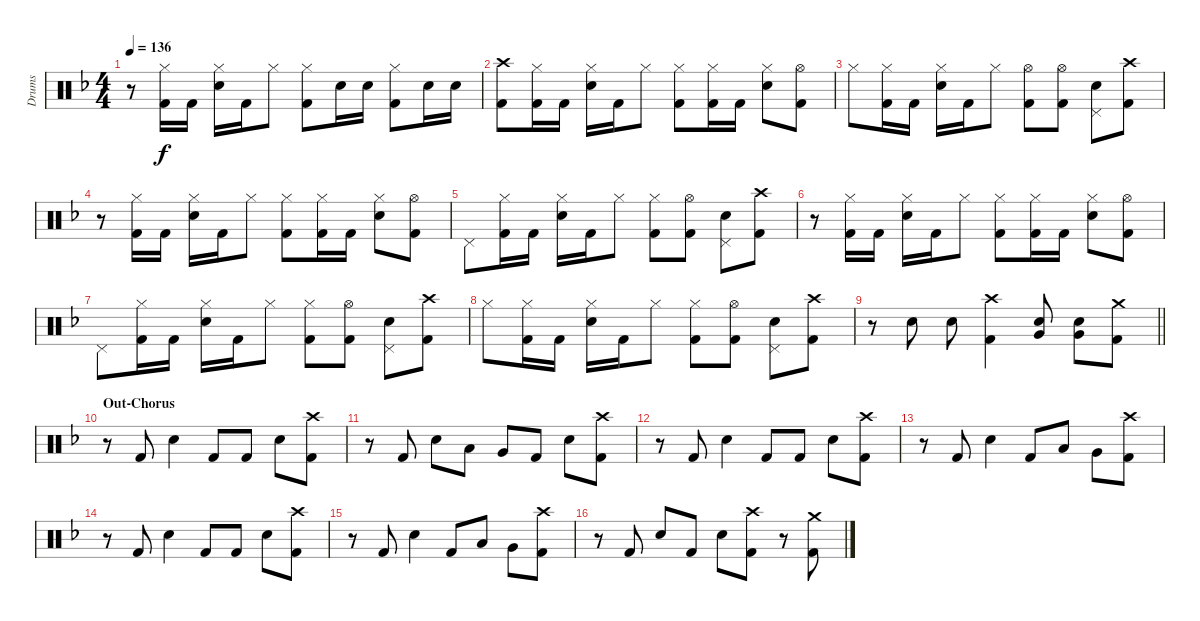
\track ("Drums" "Drums") {instrument percussion}
\staff {score}
\articulation defaults
\ts (4 4)
\tempo 136
\clef neutral
\ks dminor
r.8{dy f} ("Hi-Hat (closed)" "Kick (hit) 2").16 "Kick (hit) 2".16 ("Hi-Hat (closed)" "Snare (hit) 2").16 "Kick (hit) 2".16 "Hi-Hat (closed)".8 ("Hi-Hat (closed)" "Kick (hit) 2").8 "Snare (hit) 2".16 "Snare (hit) 2".16 ("Hi-Hat (closed)" "Kick (hit) 2").8 "Snare (hit) 2".16 "Snare (hit) 2".16 |
("Crash high (hit)" "Kick (hit) 2").8 ("Hi-Hat (closed)" "Kick (hit) 2").16 "Kick (hit) 2".16 ("Hi-Hat (closed)" "Snare (hit) 2").16 "Kick (hit) 2".16 "Hi-Hat (closed)".8 ("Hi-Hat (closed)" "Kick (hit) 2").8 ("Hi-Hat (closed)" "Kick (hit) 2").16 "Kick (hit) 2".16 ("Hi-Hat (closed)" "Snare (hit) 2").8 ("Hi-Hat (open)" "Kick (hit) 2").8 |
"Hi-Hat (closed)".8 ("Hi-Hat (closed)" "Kick (hit) 2").16 "Kick (hit) 2".16 ("Hi-Hat (closed)" "Snare (hit) 2").16 "Kick (hit) 2".16 "Hi-Hat (closed)".8 ("Hi-Hat (open)" "Kick (hit) 2").8 ("Hi-Hat (open)" "Kick (hit) 2").8 ("Pedal Hi-Hat (hit)" "Snare (hit) 2").8 ("Crash high (hit)" "Kick (hit) 2").8 |
r.8 ("Hi-Hat (closed)" "Kick (hit) 2").16 "Kick (hit) 2".16 ("Hi-Hat (closed)" "Snare (hit) 2").16 "Kick (hit) 2".16 "Hi-Hat (closed)".8 ("Hi-Hat (closed)" "Kick (hit) 2").8 ("Hi-Hat (closed)" "Kick (hit) 2").16 "Kick (hit) 2".16 ("Hi-Hat (closed)" "Snare (hit) 2").8 ("Hi-Hat (open)" "Kick (hit) 2").8 |
"Pedal Hi-Hat (hit)".8 ("Hi-Hat (closed)" "Kick (hit) 2").16 "Kick (hit) 2".16 ("Hi-Hat (closed)" "Snare (hit) 2").16 "Kick (hit) 2".16 "Hi-Hat (closed)".8 ("Hi-Hat (closed)" "Kick (hit) 2").8 ("Hi-Hat (open)" "Kick (hit) 2").8 ("Pedal Hi-Hat (hit)" "Snare (hit) 2").8 ("Crash high (hit)" "Kick (hit) 2").8 |
r.8 ("Hi-Hat (closed)" "Kick (hit) 2").16 "Kick (hit) 2".16 ("Hi-Hat (closed)" "Snare (hit) 2").16 "Kick (hit) 2".16 "Hi-Hat (closed)".8 ("Hi-Hat (closed)" "Kick (hit) 2").8 ("Hi-Hat (closed)" "Kick (hit) 2").16 "Kick (hit) 2".16 ("Hi-Hat (closed)" "Snare (hit) 2").8 ("Hi-Hat (open)" "Kick (hit) 2").8 |
"Pedal Hi-Hat (hit)".8 ("Hi-Hat (closed)" "Kick (hit) 2").16 "Kick (hit) 2".16 ("Hi-Hat (closed)" "Snare (hit) 2").16 "Kick (hit) 2".16 "Hi-Hat (closed)".8 ("Hi-Hat (closed)" "Kick (hit) 2").8 ("Hi-Hat (open)" "Kick (hit) 2").8 ("Pedal Hi-Hat (hit)" "Snare (hit) 2").8 ("Crash high (hit)" "Kick (hit) 2").8 |
"Hi-Hat (closed)".8 ("Hi-Hat (closed)" "Kick (hit) 2").16 "Kick (hit) 2".16 ("Hi-Hat (closed)" "Snare (hit) 2").16 "Kick (hit) 2".16 "Hi-Hat (closed)".8 ("Hi-Hat (closed)" "Kick (hit) 2").8 ("Hi-Hat (open)" "Kick (hit) 2").8 ("Pedal Hi-Hat (hit)" "Snare (hit) 2").8 ("Crash high (hit)" "Kick (hit) 2").8 |
\barLineRight lightlight
r.8 "Snare (hit) 2".8 "Snare (hit) 2".8 ("Crash high (hit)" "Kick (hit) 2").4 ("Very Low Tom (hit)" "Snare (hit) 2").8 ("Very Low Tom (hit)" "Snare (hit) 2").8 ("Crash medium (hit)" "Kick (hit) 2").8 |
\section ("" "Out-Chorus")
r.8 "Kick (hit) 2".8 "Snare (hit) 2".4 "Kick (hit) 2".8 "Kick (hit) 2".8 "Snare (hit) 2".8 ("Crash high (hit)" "Kick (hit) 2").8 |
r.8 "Kick (hit) 2".8 "Snare (hit) 2".8 "Low Tom (hit)".8 "Very Low Tom (hit)".8 "Kick (hit) 2".8 "Snare (hit) 2".8 ("Crash high (hit)" "Kick (hit) 2").8 |
r.8 "Kick (hit) 2".8 "Snare (hit) 2".4 "Kick (hit) 2".8 "Kick (hit) 2".8 "Snare (hit) 2".8 ("Crash high (hit)" "Kick (hit) 2").8 |
r.8 "Kick (hit) 2".8 "Snare (hit) 2".4 "Kick (hit) 2".8 "Low Tom (hit)".8 "Very Low Tom (hit)".8 ("Crash high (hit)" "Kick (hit) 2").8 |
r.8 "Kick (hit) 2".8 "Snare (hit) 2".4 "Kick (hit) 2".8 "Kick (hit) 2".8 "Snare (hit) 2".8 ("Crash high (hit)" "Kick (hit) 2").8 |
r.8 "Kick (hit) 2".8 "Snare (hit) 2".4 "Kick (hit) 2".8 "Low Tom (hit)".8 "Very Low Tom (hit)".8 ("Crash high (hit)" "Kick (hit) 2").8 |
r.8 "Kick (hit) 2".8 "Snare (hit) 2".8 "Kick (hit) 2".8 "Snare (hit) 2".8 ("Crash high (hit)" "Kick (hit) 2").8 r.8 ("Crash medium (hit)" "Kick (hit) 2").8
